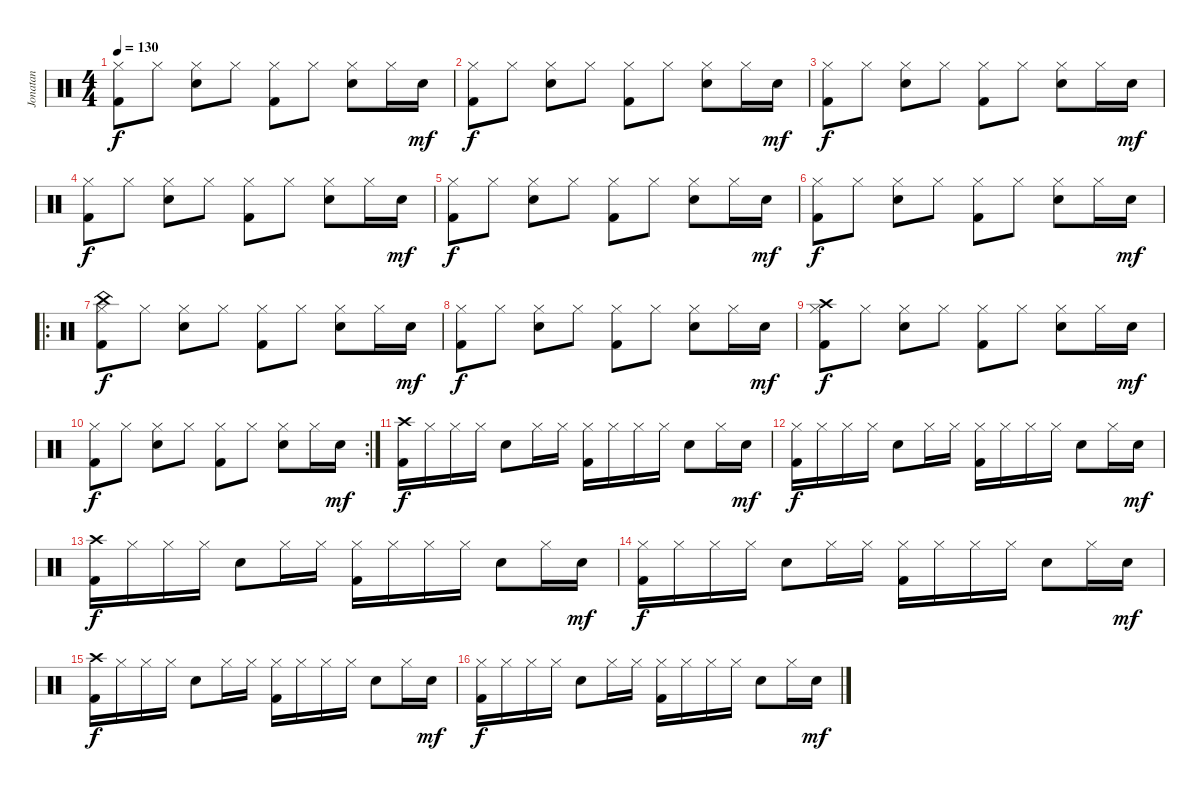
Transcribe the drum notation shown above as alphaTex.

\track ("Jonatan" "Jonatan") {instrument percussion}
\staff {score}
\articulation defaults
\ts (4 4)
\tempo 130
\clef neutral
\ks c
("Hi-Hat (closed)" "Kick (hit) 2").8{dy f} "Hi-Hat (closed)".8 ("Hi-Hat (closed)" "Electric Snare (hit)").8 "Hi-Hat (closed)".8 ("Hi-Hat (closed)" "Kick (hit) 2").8 "Hi-Hat (closed)".8 ("Hi-Hat (closed)" "Electric Snare (hit)").8 "Hi-Hat (closed)".16 "Electric Snare (hit)".16{dy mf} |
("Hi-Hat (closed)" "Kick (hit) 2").8{dy f} "Hi-Hat (closed)".8 ("Hi-Hat (closed)" "Electric Snare (hit)").8 "Hi-Hat (closed)".8 ("Hi-Hat (closed)" "Kick (hit) 2").8 "Hi-Hat (closed)".8 ("Hi-Hat (closed)" "Electric Snare (hit)").8 "Hi-Hat (closed)".16 "Electric Snare (hit)".16{dy mf} |
("Hi-Hat (closed)" "Kick (hit) 2").8{dy f} "Hi-Hat (closed)".8 ("Hi-Hat (closed)" "Electric Snare (hit)").8 "Hi-Hat (closed)".8 ("Hi-Hat (closed)" "Kick (hit) 2").8 "Hi-Hat (closed)".8 ("Hi-Hat (closed)" "Electric Snare (hit)").8 "Hi-Hat (closed)".16 "Electric Snare (hit)".16{dy mf} |
("Hi-Hat (closed)" "Kick (hit) 2").8{dy f} "Hi-Hat (closed)".8 ("Hi-Hat (closed)" "Electric Snare (hit)").8 "Hi-Hat (closed)".8 ("Hi-Hat (closed)" "Kick (hit) 2").8 "Hi-Hat (closed)".8 ("Hi-Hat (closed)" "Electric Snare (hit)").8 "Hi-Hat (closed)".16 "Electric Snare (hit)".16{dy mf} |
("Hi-Hat (closed)" "Kick (hit) 2").8{dy f} "Hi-Hat (closed)".8 ("Hi-Hat (closed)" "Electric Snare (hit)").8 "Hi-Hat (closed)".8 ("Hi-Hat (closed)" "Kick (hit) 2").8 "Hi-Hat (closed)".8 ("Hi-Hat (closed)" "Electric Snare (hit)").8 "Hi-Hat (closed)".16 "Electric Snare (hit)".16{dy mf} |
("Hi-Hat (closed)" "Kick (hit) 2").8{dy f} "Hi-Hat (closed)".8 ("Hi-Hat (closed)" "Electric Snare (hit)").8 "Hi-Hat (closed)".8 ("Hi-Hat (closed)" "Kick (hit) 2").8 "Hi-Hat (closed)".8 ("Hi-Hat (closed)" "Electric Snare (hit)").8 "Hi-Hat (closed)".16 "Electric Snare (hit)".16{dy mf} |
\ro
("China (hit)" "Hi-Hat (closed)" "Kick (hit) 2").8{dy f} "Hi-Hat (closed)".8 ("Hi-Hat (closed)" "Electric Snare (hit)").8 "Hi-Hat (closed)".8 ("Hi-Hat (closed)" "Kick (hit) 2").8 "Hi-Hat (closed)".8 ("Hi-Hat (closed)" "Electric Snare (hit)").8 "Hi-Hat (closed)".16 "Electric Snare (hit)".16{dy mf} |
("Hi-Hat (closed)" "Kick (hit) 2").8{dy f} "Hi-Hat (closed)".8 ("Hi-Hat (closed)" "Electric Snare (hit)").8 "Hi-Hat (closed)".8 ("Hi-Hat (closed)" "Kick (hit) 2").8 "Hi-Hat (closed)".8 ("Hi-Hat (closed)" "Electric Snare (hit)").8 "Hi-Hat (closed)".16 "Electric Snare (hit)".16{dy mf} |
("Crash high (hit)" "Hi-Hat (closed)" "Kick (hit) 2").8{dy f} "Hi-Hat (closed)".8 ("Hi-Hat (closed)" "Electric Snare (hit)").8 "Hi-Hat (closed)".8 ("Hi-Hat (closed)" "Kick (hit) 2").8 "Hi-Hat (closed)".8 ("Hi-Hat (closed)" "Electric Snare (hit)").8 "Hi-Hat (closed)".16 "Electric Snare (hit)".16{dy mf} |
\rc 2
("Hi-Hat (closed)" "Kick (hit) 2").8{dy f} "Hi-Hat (closed)".8 ("Hi-Hat (closed)" "Electric Snare (hit)").8 "Hi-Hat (closed)".8 ("Hi-Hat (closed)" "Kick (hit) 2").8 "Hi-Hat (closed)".8 ("Hi-Hat (closed)" "Electric Snare (hit)").8 "Hi-Hat (closed)".16 "Electric Snare (hit)".16{dy mf} |
("Crash high (hit)" "Kick (hit) 2").16{dy f} "Hi-Hat (closed)".16 "Hi-Hat (closed)".16 "Hi-Hat (closed)".16 "Electric Snare (hit)".8 "Hi-Hat (closed)".16 "Hi-Hat (closed)".16 ("Hi-Hat (closed)" "Kick (hit) 2").16 "Hi-Hat (closed)".16 "Hi-Hat (closed)".16 "Hi-Hat (closed)".16 "Electric Snare (hit)".8 "Hi-Hat (closed)".16 "Electric Snare (hit)".16{dy mf} |
("Hi-Hat (closed)" "Kick (hit) 2").16{dy f} "Hi-Hat (closed)".16 "Hi-Hat (closed)".16 "Hi-Hat (closed)".16 "Electric Snare (hit)".8 "Hi-Hat (closed)".16 "Hi-Hat (closed)".16 ("Hi-Hat (closed)" "Kick (hit) 2").16 "Hi-Hat (closed)".16 "Hi-Hat (closed)".16 "Hi-Hat (closed)".16 "Electric Snare (hit)".8 "Hi-Hat (closed)".16 "Electric Snare (hit)".16{dy mf} |
("Crash high (hit)" "Kick (hit) 2").16{dy f} "Hi-Hat (closed)".16 "Hi-Hat (closed)".16 "Hi-Hat (closed)".16 "Electric Snare (hit)".8 "Hi-Hat (closed)".16 "Hi-Hat (closed)".16 ("Hi-Hat (closed)" "Kick (hit) 2").16 "Hi-Hat (closed)".16 "Hi-Hat (closed)".16 "Hi-Hat (closed)".16 "Electric Snare (hit)".8 "Hi-Hat (closed)".16 "Electric Snare (hit)".16{dy mf} |
("Hi-Hat (closed)" "Kick (hit) 2").16{dy f} "Hi-Hat (closed)".16 "Hi-Hat (closed)".16 "Hi-Hat (closed)".16 "Electric Snare (hit)".8 "Hi-Hat (closed)".16 "Hi-Hat (closed)".16 ("Hi-Hat (closed)" "Kick (hit) 2").16 "Hi-Hat (closed)".16 "Hi-Hat (closed)".16 "Hi-Hat (closed)".16 "Electric Snare (hit)".8 "Hi-Hat (closed)".16 "Electric Snare (hit)".16{dy mf} |
("Crash high (hit)" "Kick (hit) 2").16{dy f} "Hi-Hat (closed)".16 "Hi-Hat (closed)".16 "Hi-Hat (closed)".16 "Electric Snare (hit)".8 "Hi-Hat (closed)".16 "Hi-Hat (closed)".16 ("Hi-Hat (closed)" "Kick (hit) 2").16 "Hi-Hat (closed)".16 "Hi-Hat (closed)".16 "Hi-Hat (closed)".16 "Electric Snare (hit)".8 "Hi-Hat (closed)".16 "Electric Snare (hit)".16{dy mf} |
("Hi-Hat (closed)" "Kick (hit) 2").16{dy f} "Hi-Hat (closed)".16 "Hi-Hat (closed)".16 "Hi-Hat (closed)".16 "Electric Snare (hit)".8 "Hi-Hat (closed)".16 "Hi-Hat (closed)".16 ("Hi-Hat (closed)" "Kick (hit) 2").16 "Hi-Hat (closed)".16 "Hi-Hat (closed)".16 "Hi-Hat (closed)".16 "Electric Snare (hit)".8 "Hi-Hat (closed)".16 "Electric Snare (hit)".16{dy mf}
